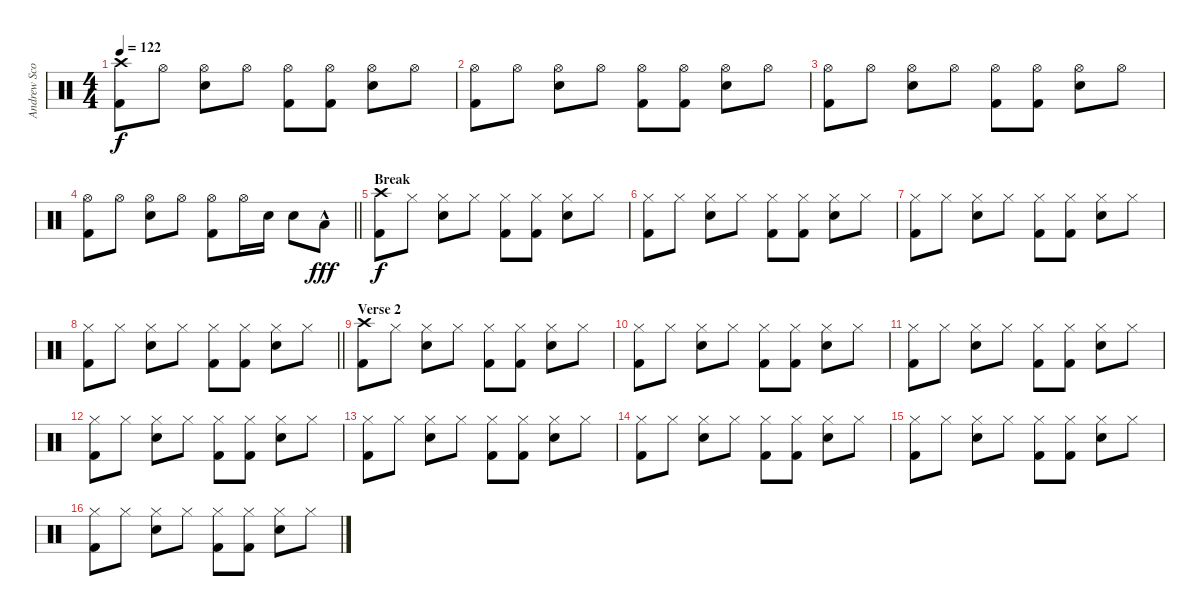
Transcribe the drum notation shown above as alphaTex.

\track ("Andrew Scott" "Andrew Sco") {instrument percussion}
\staff {score}
\articulation defaults
\ts (4 4)
\tempo 122
\clef neutral
\ks c
("Crash high (hit)" "Kick (hit) 2").8{dy f} "Hi-Hat (open)".8 ("Hi-Hat (open)" "Snare (hit) 2").8 "Hi-Hat (open)".8 ("Hi-Hat (open)" "Kick (hit) 2").8 ("Hi-Hat (open)" "Kick (hit) 2").8 ("Hi-Hat (open)" "Snare (hit) 2").8 "Hi-Hat (open)".8 |
("Hi-Hat (open)" "Kick (hit) 2").8 "Hi-Hat (open)".8 ("Hi-Hat (open)" "Snare (hit) 2").8 "Hi-Hat (open)".8 ("Hi-Hat (open)" "Kick (hit) 2").8 ("Hi-Hat (open)" "Kick (hit) 2").8 ("Hi-Hat (open)" "Snare (hit) 2").8 "Hi-Hat (open)".8 |
("Hi-Hat (open)" "Kick (hit) 2").8 "Hi-Hat (open)".8 ("Hi-Hat (open)" "Snare (hit) 2").8 "Hi-Hat (open)".8 ("Hi-Hat (open)" "Kick (hit) 2").8 ("Hi-Hat (open)" "Kick (hit) 2").8 ("Hi-Hat (open)" "Snare (hit) 2").8 "Hi-Hat (open)".8 |
\barLineRight lightlight
("Hi-Hat (open)" "Kick (hit) 2").8 "Hi-Hat (open)".8 ("Hi-Hat (open)" "Snare (hit) 2").8 "Hi-Hat (open)".8 ("Hi-Hat (open)" "Kick (hit) 2").8 "Hi-Hat (open)".16 "Snare (hit) 2".16 "Snare (hit) 2".8 "Low Tom (hit)"{hac}.8{dy fff} |
\section ("" "Break")
("Crash high (hit)" "Kick (hit) 2").8{dy f} "Hi-Hat (closed)".8 ("Hi-Hat (closed)" "Snare (hit) 2").8 "Hi-Hat (closed)".8 ("Hi-Hat (closed)" "Kick (hit) 2").8 ("Hi-Hat (closed)" "Kick (hit) 2").8 ("Hi-Hat (closed)" "Snare (hit) 2").8 "Hi-Hat (closed)".8 |
("Hi-Hat (closed)" "Kick (hit) 2").8 "Hi-Hat (closed)".8 ("Hi-Hat (closed)" "Snare (hit) 2").8 "Hi-Hat (closed)".8 ("Hi-Hat (closed)" "Kick (hit) 2").8 ("Hi-Hat (closed)" "Kick (hit) 2").8 ("Hi-Hat (closed)" "Snare (hit) 2").8 "Hi-Hat (closed)".8 |
("Hi-Hat (closed)" "Kick (hit) 2").8 "Hi-Hat (closed)".8 ("Hi-Hat (closed)" "Snare (hit) 2").8 "Hi-Hat (closed)".8 ("Hi-Hat (closed)" "Kick (hit) 2").8 ("Hi-Hat (closed)" "Kick (hit) 2").8 ("Hi-Hat (closed)" "Snare (hit) 2").8 "Hi-Hat (closed)".8 |
\barLineRight lightlight
("Hi-Hat (closed)" "Kick (hit) 2").8 "Hi-Hat (closed)".8 ("Hi-Hat (closed)" "Snare (hit) 2").8 "Hi-Hat (closed)".8 ("Hi-Hat (closed)" "Kick (hit) 2").8 ("Hi-Hat (closed)" "Kick (hit) 2").8 ("Hi-Hat (closed)" "Snare (hit) 2").8 "Hi-Hat (closed)".8 |
\section ("" "Verse 2")
("Crash high (hit)" "Kick (hit) 2").8 "Hi-Hat (closed)".8 ("Hi-Hat (closed)" "Snare (hit) 2").8 "Hi-Hat (closed)".8 ("Hi-Hat (closed)" "Kick (hit) 2").8 ("Hi-Hat (closed)" "Kick (hit) 2").8 ("Hi-Hat (closed)" "Snare (hit) 2").8 "Hi-Hat (closed)".8 |
("Hi-Hat (closed)" "Kick (hit) 2").8 "Hi-Hat (closed)".8 ("Hi-Hat (closed)" "Snare (hit) 2").8 "Hi-Hat (closed)".8 ("Hi-Hat (closed)" "Kick (hit) 2").8 ("Hi-Hat (closed)" "Kick (hit) 2").8 ("Hi-Hat (closed)" "Snare (hit) 2").8 "Hi-Hat (closed)".8 |
("Hi-Hat (closed)" "Kick (hit) 2").8 "Hi-Hat (closed)".8 ("Hi-Hat (closed)" "Snare (hit) 2").8 "Hi-Hat (closed)".8 ("Hi-Hat (closed)" "Kick (hit) 2").8 ("Hi-Hat (closed)" "Kick (hit) 2").8 ("Hi-Hat (closed)" "Snare (hit) 2").8 "Hi-Hat (closed)".8 |
("Hi-Hat (closed)" "Kick (hit) 2").8 "Hi-Hat (closed)".8 ("Hi-Hat (closed)" "Snare (hit) 2").8 "Hi-Hat (closed)".8 ("Hi-Hat (closed)" "Kick (hit) 2").8 ("Hi-Hat (closed)" "Kick (hit) 2").8 ("Hi-Hat (closed)" "Snare (hit) 2").8 "Hi-Hat (closed)".8 |
("Hi-Hat (closed)" "Kick (hit) 2").8 "Hi-Hat (closed)".8 ("Hi-Hat (closed)" "Snare (hit) 2").8 "Hi-Hat (closed)".8 ("Hi-Hat (closed)" "Kick (hit) 2").8 ("Hi-Hat (closed)" "Kick (hit) 2").8 ("Hi-Hat (closed)" "Snare (hit) 2").8 "Hi-Hat (closed)".8 |
("Hi-Hat (closed)" "Kick (hit) 2").8 "Hi-Hat (closed)".8 ("Hi-Hat (closed)" "Snare (hit) 2").8 "Hi-Hat (closed)".8 ("Hi-Hat (closed)" "Kick (hit) 2").8 ("Hi-Hat (closed)" "Kick (hit) 2").8 ("Hi-Hat (closed)" "Snare (hit) 2").8 "Hi-Hat (closed)".8 |
("Hi-Hat (closed)" "Kick (hit) 2").8 "Hi-Hat (closed)".8 ("Hi-Hat (closed)" "Snare (hit) 2").8 "Hi-Hat (closed)".8 ("Hi-Hat (closed)" "Kick (hit) 2").8 ("Hi-Hat (closed)" "Kick (hit) 2").8 ("Hi-Hat (closed)" "Snare (hit) 2").8 "Hi-Hat (closed)".8 |
("Hi-Hat (closed)" "Kick (hit) 2").8 "Hi-Hat (closed)".8 ("Hi-Hat (closed)" "Snare (hit) 2").8 "Hi-Hat (closed)".8 ("Hi-Hat (closed)" "Kick (hit) 2").8 ("Hi-Hat (closed)" "Kick (hit) 2").8 ("Hi-Hat (closed)" "Snare (hit) 2").8 "Hi-Hat (closed)".8
